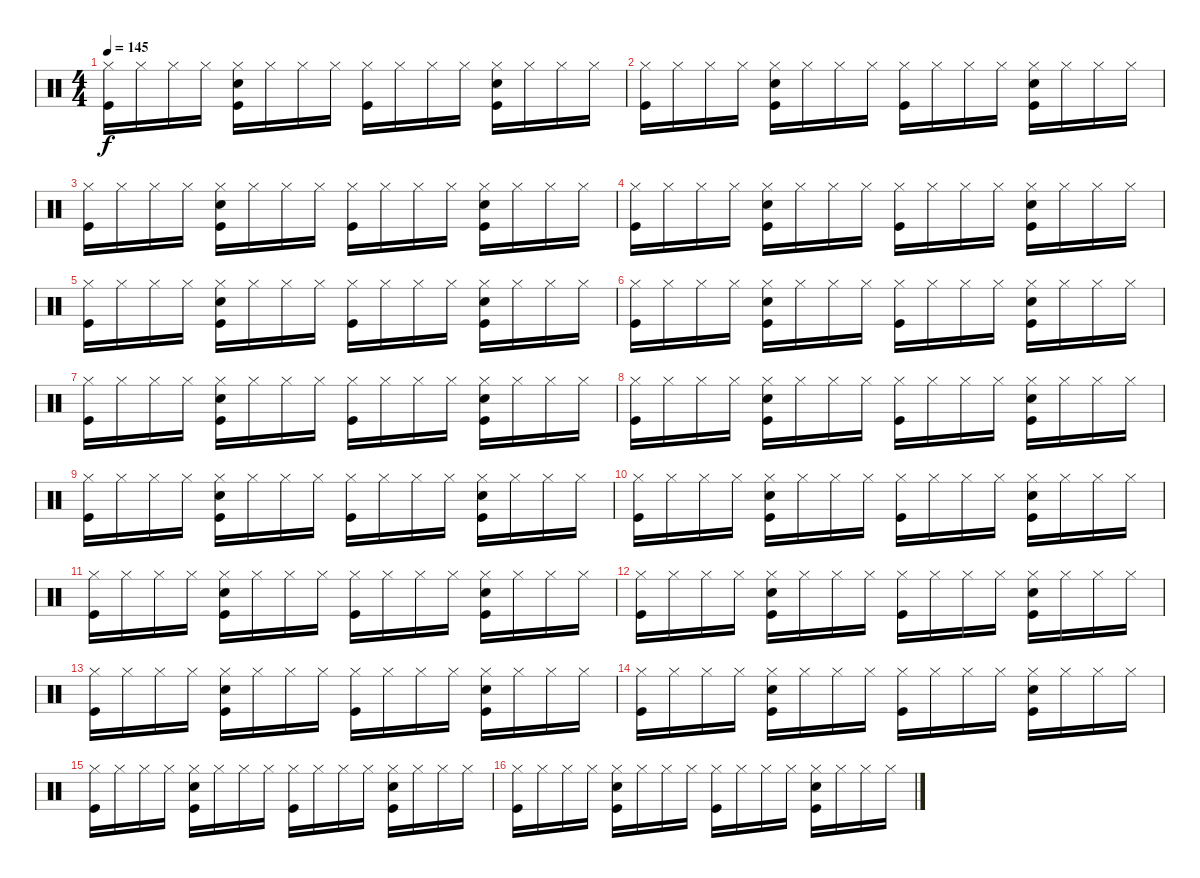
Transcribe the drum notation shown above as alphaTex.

\track "" {instrument percussion}
\staff {score}
\articulation defaults
\ts (4 4)
\tempo 145
\clef neutral
\ks c
("Hi-Hat (closed)" "Kick (hit)").16{dy f} "Hi-Hat (closed)".16 "Hi-Hat (closed)".16 "Hi-Hat (closed)".16 ("Snare (hit) 2" "Hi-Hat (closed)" "Kick (hit)").16 "Hi-Hat (closed)".16 "Hi-Hat (closed)".16 "Hi-Hat (closed)".16 ("Hi-Hat (closed)" "Kick (hit)").16 "Hi-Hat (closed)".16 "Hi-Hat (closed)".16 "Hi-Hat (closed)".16 ("Snare (hit) 2" "Hi-Hat (closed)" "Kick (hit)").16 "Hi-Hat (closed)".16 "Hi-Hat (closed)".16 "Hi-Hat (closed)".16 |
("Hi-Hat (closed)" "Kick (hit)").16 "Hi-Hat (closed)".16 "Hi-Hat (closed)".16 "Hi-Hat (closed)".16 ("Snare (hit) 2" "Hi-Hat (closed)" "Kick (hit)").16 "Hi-Hat (closed)".16 "Hi-Hat (closed)".16 "Hi-Hat (closed)".16 ("Hi-Hat (closed)" "Kick (hit)").16 "Hi-Hat (closed)".16 "Hi-Hat (closed)".16 "Hi-Hat (closed)".16 ("Snare (hit) 2" "Hi-Hat (closed)" "Kick (hit)").16 "Hi-Hat (closed)".16 "Hi-Hat (closed)".16 "Hi-Hat (closed)".16 |
("Hi-Hat (closed)" "Kick (hit)").16 "Hi-Hat (closed)".16 "Hi-Hat (closed)".16 "Hi-Hat (closed)".16 ("Snare (hit) 2" "Hi-Hat (closed)" "Kick (hit)").16 "Hi-Hat (closed)".16 "Hi-Hat (closed)".16 "Hi-Hat (closed)".16 ("Hi-Hat (closed)" "Kick (hit)").16 "Hi-Hat (closed)".16 "Hi-Hat (closed)".16 "Hi-Hat (closed)".16 ("Snare (hit) 2" "Hi-Hat (closed)" "Kick (hit)").16 "Hi-Hat (closed)".16 "Hi-Hat (closed)".16 "Hi-Hat (closed)".16 |
("Hi-Hat (closed)" "Kick (hit)").16 "Hi-Hat (closed)".16 "Hi-Hat (closed)".16 "Hi-Hat (closed)".16 ("Snare (hit) 2" "Hi-Hat (closed)" "Kick (hit)").16 "Hi-Hat (closed)".16 "Hi-Hat (closed)".16 "Hi-Hat (closed)".16 ("Hi-Hat (closed)" "Kick (hit)").16 "Hi-Hat (closed)".16 "Hi-Hat (closed)".16 "Hi-Hat (closed)".16 ("Snare (hit) 2" "Hi-Hat (closed)" "Kick (hit)").16 "Hi-Hat (closed)".16 "Hi-Hat (closed)".16 "Hi-Hat (closed)".16 |
("Hi-Hat (closed)" "Kick (hit)").16 "Hi-Hat (closed)".16 "Hi-Hat (closed)".16 "Hi-Hat (closed)".16 ("Snare (hit) 2" "Hi-Hat (closed)" "Kick (hit)").16 "Hi-Hat (closed)".16 "Hi-Hat (closed)".16 "Hi-Hat (closed)".16 ("Hi-Hat (closed)" "Kick (hit)").16 "Hi-Hat (closed)".16 "Hi-Hat (closed)".16 "Hi-Hat (closed)".16 ("Snare (hit) 2" "Hi-Hat (closed)" "Kick (hit)").16 "Hi-Hat (closed)".16 "Hi-Hat (closed)".16 "Hi-Hat (closed)".16 |
("Hi-Hat (closed)" "Kick (hit)").16 "Hi-Hat (closed)".16 "Hi-Hat (closed)".16 "Hi-Hat (closed)".16 ("Snare (hit) 2" "Hi-Hat (closed)" "Kick (hit)").16 "Hi-Hat (closed)".16 "Hi-Hat (closed)".16 "Hi-Hat (closed)".16 ("Hi-Hat (closed)" "Kick (hit)").16 "Hi-Hat (closed)".16 "Hi-Hat (closed)".16 "Hi-Hat (closed)".16 ("Snare (hit) 2" "Hi-Hat (closed)" "Kick (hit)").16 "Hi-Hat (closed)".16 "Hi-Hat (closed)".16 "Hi-Hat (closed)".16 |
("Hi-Hat (closed)" "Kick (hit)").16 "Hi-Hat (closed)".16 "Hi-Hat (closed)".16 "Hi-Hat (closed)".16 ("Snare (hit) 2" "Hi-Hat (closed)" "Kick (hit)").16 "Hi-Hat (closed)".16 "Hi-Hat (closed)".16 "Hi-Hat (closed)".16 ("Hi-Hat (closed)" "Kick (hit)").16 "Hi-Hat (closed)".16 "Hi-Hat (closed)".16 "Hi-Hat (closed)".16 ("Snare (hit) 2" "Hi-Hat (closed)" "Kick (hit)").16 "Hi-Hat (closed)".16 "Hi-Hat (closed)".16 "Hi-Hat (closed)".16 |
("Hi-Hat (closed)" "Kick (hit)").16 "Hi-Hat (closed)".16 "Hi-Hat (closed)".16 "Hi-Hat (closed)".16 ("Snare (hit) 2" "Hi-Hat (closed)" "Kick (hit)").16 "Hi-Hat (closed)".16 "Hi-Hat (closed)".16 "Hi-Hat (closed)".16 ("Hi-Hat (closed)" "Kick (hit)").16 "Hi-Hat (closed)".16 "Hi-Hat (closed)".16 "Hi-Hat (closed)".16 ("Snare (hit) 2" "Hi-Hat (closed)" "Kick (hit)").16 "Hi-Hat (closed)".16 "Hi-Hat (closed)".16 "Hi-Hat (closed)".16 |
("Hi-Hat (closed)" "Kick (hit)").16 "Hi-Hat (closed)".16 "Hi-Hat (closed)".16 "Hi-Hat (closed)".16 ("Snare (hit) 2" "Hi-Hat (closed)" "Kick (hit)").16 "Hi-Hat (closed)".16 "Hi-Hat (closed)".16 "Hi-Hat (closed)".16 ("Hi-Hat (closed)" "Kick (hit)").16 "Hi-Hat (closed)".16 "Hi-Hat (closed)".16 "Hi-Hat (closed)".16 ("Snare (hit) 2" "Hi-Hat (closed)" "Kick (hit)").16 "Hi-Hat (closed)".16 "Hi-Hat (closed)".16 "Hi-Hat (closed)".16 |
("Hi-Hat (closed)" "Kick (hit)").16 "Hi-Hat (closed)".16 "Hi-Hat (closed)".16 "Hi-Hat (closed)".16 ("Snare (hit) 2" "Hi-Hat (closed)" "Kick (hit)").16 "Hi-Hat (closed)".16 "Hi-Hat (closed)".16 "Hi-Hat (closed)".16 ("Hi-Hat (closed)" "Kick (hit)").16 "Hi-Hat (closed)".16 "Hi-Hat (closed)".16 "Hi-Hat (closed)".16 ("Snare (hit) 2" "Hi-Hat (closed)" "Kick (hit)").16 "Hi-Hat (closed)".16 "Hi-Hat (closed)".16 "Hi-Hat (closed)".16 |
("Hi-Hat (closed)" "Kick (hit)").16 "Hi-Hat (closed)".16 "Hi-Hat (closed)".16 "Hi-Hat (closed)".16 ("Snare (hit) 2" "Hi-Hat (closed)" "Kick (hit)").16 "Hi-Hat (closed)".16 "Hi-Hat (closed)".16 "Hi-Hat (closed)".16 ("Hi-Hat (closed)" "Kick (hit)").16 "Hi-Hat (closed)".16 "Hi-Hat (closed)".16 "Hi-Hat (closed)".16 ("Snare (hit) 2" "Hi-Hat (closed)" "Kick (hit)").16 "Hi-Hat (closed)".16 "Hi-Hat (closed)".16 "Hi-Hat (closed)".16 |
("Hi-Hat (closed)" "Kick (hit)").16 "Hi-Hat (closed)".16 "Hi-Hat (closed)".16 "Hi-Hat (closed)".16 ("Snare (hit) 2" "Hi-Hat (closed)" "Kick (hit)").16 "Hi-Hat (closed)".16 "Hi-Hat (closed)".16 "Hi-Hat (closed)".16 ("Hi-Hat (closed)" "Kick (hit)").16 "Hi-Hat (closed)".16 "Hi-Hat (closed)".16 "Hi-Hat (closed)".16 ("Snare (hit) 2" "Hi-Hat (closed)" "Kick (hit)").16 "Hi-Hat (closed)".16 "Hi-Hat (closed)".16 "Hi-Hat (closed)".16 |
("Hi-Hat (closed)" "Kick (hit)").16 "Hi-Hat (closed)".16 "Hi-Hat (closed)".16 "Hi-Hat (closed)".16 ("Snare (hit) 2" "Hi-Hat (closed)" "Kick (hit)").16 "Hi-Hat (closed)".16 "Hi-Hat (closed)".16 "Hi-Hat (closed)".16 ("Hi-Hat (closed)" "Kick (hit)").16 "Hi-Hat (closed)".16 "Hi-Hat (closed)".16 "Hi-Hat (closed)".16 ("Snare (hit) 2" "Hi-Hat (closed)" "Kick (hit)").16 "Hi-Hat (closed)".16 "Hi-Hat (closed)".16 "Hi-Hat (closed)".16 |
("Hi-Hat (closed)" "Kick (hit)").16 "Hi-Hat (closed)".16 "Hi-Hat (closed)".16 "Hi-Hat (closed)".16 ("Snare (hit) 2" "Hi-Hat (closed)" "Kick (hit)").16 "Hi-Hat (closed)".16 "Hi-Hat (closed)".16 "Hi-Hat (closed)".16 ("Hi-Hat (closed)" "Kick (hit)").16 "Hi-Hat (closed)".16 "Hi-Hat (closed)".16 "Hi-Hat (closed)".16 ("Snare (hit) 2" "Hi-Hat (closed)" "Kick (hit)").16 "Hi-Hat (closed)".16 "Hi-Hat (closed)".16 "Hi-Hat (closed)".16 |
("Hi-Hat (closed)" "Kick (hit)").16 "Hi-Hat (closed)".16 "Hi-Hat (closed)".16 "Hi-Hat (closed)".16 ("Snare (hit) 2" "Hi-Hat (closed)" "Kick (hit)").16 "Hi-Hat (closed)".16 "Hi-Hat (closed)".16 "Hi-Hat (closed)".16 ("Hi-Hat (closed)" "Kick (hit)").16 "Hi-Hat (closed)".16 "Hi-Hat (closed)".16 "Hi-Hat (closed)".16 ("Snare (hit) 2" "Hi-Hat (closed)" "Kick (hit)").16 "Hi-Hat (closed)".16 "Hi-Hat (closed)".16 "Hi-Hat (closed)".16 |
("Hi-Hat (closed)" "Kick (hit)").16 "Hi-Hat (closed)".16 "Hi-Hat (closed)".16 "Hi-Hat (closed)".16 ("Snare (hit) 2" "Hi-Hat (closed)" "Kick (hit)").16 "Hi-Hat (closed)".16 "Hi-Hat (closed)".16 "Hi-Hat (closed)".16 ("Hi-Hat (closed)" "Kick (hit)").16 "Hi-Hat (closed)".16 "Hi-Hat (closed)".16 "Hi-Hat (closed)".16 ("Snare (hit) 2" "Hi-Hat (closed)" "Kick (hit)").16 "Hi-Hat (closed)".16 "Hi-Hat (closed)".16 "Hi-Hat (closed)".16
